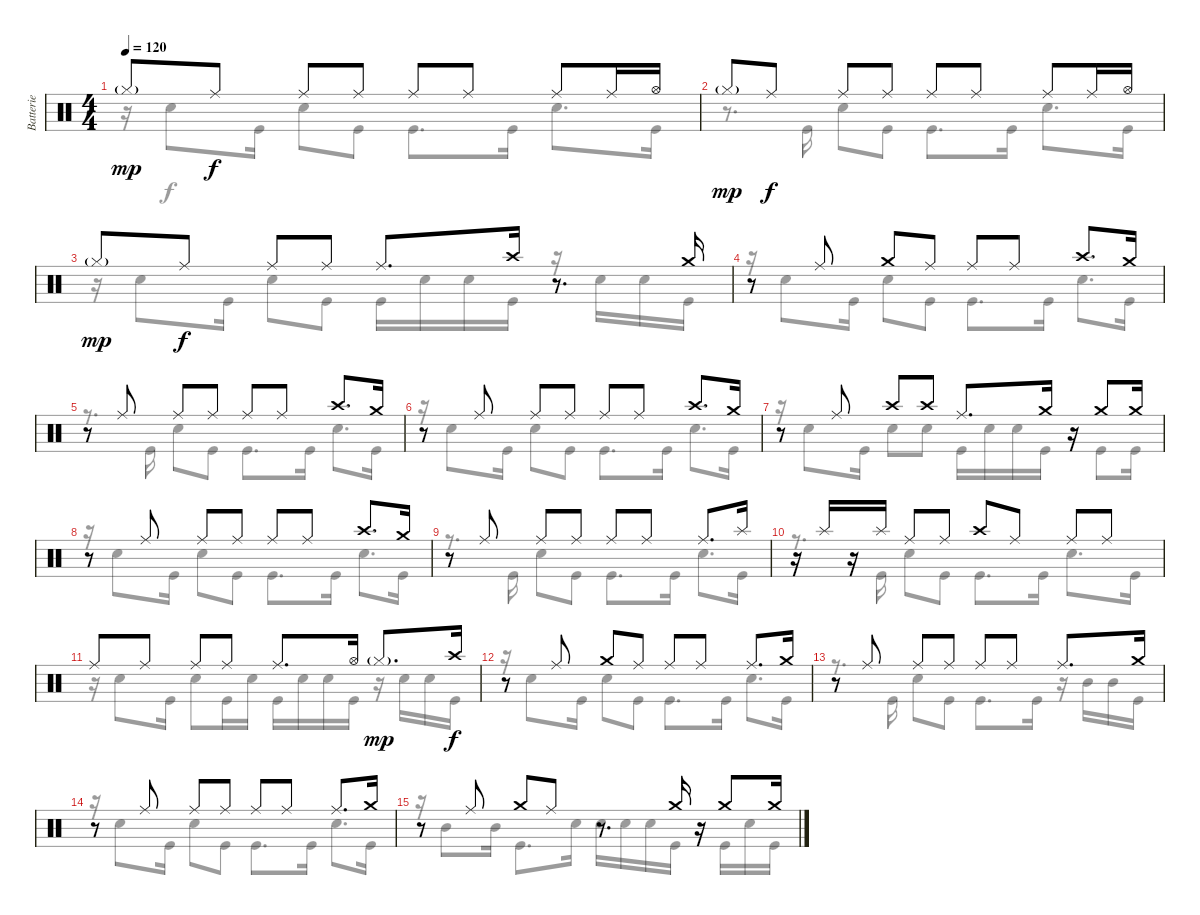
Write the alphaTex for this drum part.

\track ("Batterie" "Batterie") {instrument percussion}
\staff {score}
\articulation defaults
\voice
\ts (4 4)
\tempo 120
\clef neutral
\ks c "Hi-Hat (closed)"{g}.8{dy mp} "Ride (middle)".8{dy f} "Ride (middle)".8 "Ride (middle)".8 "Ride (middle)".8 "Ride (middle)".8 "Ride (middle)".8 "Ride (middle)".16 "Hi-Hat (open)".16
|
"Hi-Hat (closed)"{g}.8{dy mp} "Ride (middle)".8{dy f} "Ride (middle)".8 "Ride (middle)".8 "Ride (middle)".8 "Ride (middle)".8 "Ride (middle)".8 "Ride (middle)".16 "Hi-Hat (open)".16 |
"Hi-Hat (closed)"{g}.8{dy mp} "Ride (middle)".8{dy f} "Ride (middle)".8 "Ride (middle)".8 "Ride (middle)".8{d} "Crash high (hit)".16 r.8{d} "Crash medium (hit)".16 |
r.8 "Ride (middle)".8 "Crash medium (hit)".8 "Ride (middle)".8 "Ride (middle)".8 "Ride (middle)".8 "Crash high (hit)".8{d} "Crash medium (hit)".16 |
r.8 "Ride (middle)".8 "Ride (middle)".8 "Ride (middle)".8 "Ride (middle)".8 "Ride (middle)".8 "Crash high (hit)".8{d} "Crash medium (hit)".16 |
r.8 "Ride (middle)".8 "Ride (middle)".8 "Ride (middle)".8 "Ride (middle)".8 "Ride (middle)".8 "Crash high (hit)".8{d} "Crash medium (hit)".16 |
r.8 "Ride (middle)".8 "Crash high (hit)".8 "Crash high (hit)".8 "Ride (middle)".8{d} "Crash medium (hit)".16 r.16 "Crash medium (hit)".8 "Crash medium (hit)".16 |
r.8 "Ride (middle)".8 "Ride (middle)".8 "Ride (middle)".8 "Ride (middle)".8 "Ride (middle)".8 "Crash high (hit)".8{d} "Crash medium (hit)".16 |
r.8 "Ride (middle)".8 "Ride (middle)".8 "Ride (middle)".8 "Ride (middle)".8 "Ride (middle)".8 "Ride (middle)".8{d} "Splash (hit)".16 |
r.16 "Splash (hit)".16 r.16 "Splash (hit)".16 "Ride (middle)".8 "Ride (middle)".8 "Crash high (hit)".8 "Ride (middle)".8 "Ride (middle)".8 "Ride (middle)".8 |
"Ride (middle)".8 "Ride (middle)".8 "Ride (middle)".8 "Ride (middle)".8 "Ride (middle)".8{d} "Hi-Hat (open)".16 "Hi-Hat (closed)"{g}.8{d dy mp} "Crash high (hit)".16{dy f} |
r.8 "Ride (middle)".8 "Crash medium (hit)".8 "Ride (middle)".8 "Ride (middle)".8 "Ride (middle)".8 "Ride (middle)".8{d} "Crash medium (hit)".16 |
r.8 "Ride (middle)".8 "Ride (middle)".8 "Ride (middle)".8 "Ride (middle)".8 "Ride (middle)".8 "Ride (middle)".8{d} "Crash medium (hit)".16 |
r.8 "Ride (middle)".8 "Ride (middle)".8 "Ride (middle)".8 "Ride (middle)".8 "Ride (middle)".8 "Ride (middle)".8{d} "Crash medium (hit)".16 |
r.8 "Ride (middle)".8 "Crash medium (hit)".8 "Ride (middle)".8 r.8{d} "Crash medium (hit)".16 r.16 "Crash medium (hit)".8 "Crash medium (hit)".16
\voice
\clef neutral
\ottava regular
\simile none
\ks c
r.16{dy f} "Snare (hit) 2".8 "Kick (hit)".16 "Snare (hit) 2".8 "Kick (hit)".8 "Kick (hit)".8{d} "Kick (hit)".16 "Snare (hit) 2".8{d} "Kick (hit)".16 |
r.8{d} "Kick (hit)".16 "Snare (hit) 2".8 "Kick (hit)".8 "Kick (hit)".8{d} "Kick (hit)".16 "Snare (hit) 2".8{d} "Kick (hit)".16 |
r.16 "Snare (hit) 2".8 "Kick (hit)".16 "Snare (hit) 2".8 "Kick (hit)".8 "Kick (hit)".16 "Snare (hit) 2".16 "Snare (hit) 2".16 "Kick (hit)".16 r.16 "Snare (hit) 2".16 "Snare (hit) 2".16 "Kick (hit)".16 |
r.16 "Snare (hit) 2".8 "Kick (hit)".16 "Snare (hit) 2".8 "Kick (hit)".8 "Kick (hit)".8{d} "Kick (hit)".16 "Snare (hit) 2".8{d} "Kick (hit)".16 |
r.8{d} "Kick (hit)".16 "Snare (hit) 2".8 "Kick (hit)".8 "Kick (hit)".8{d} "Kick (hit)".16 "Snare (hit) 2".8{d} "Kick (hit)".16 |
r.16 "Snare (hit) 2".8 "Kick (hit)".16 "Snare (hit) 2".8 "Kick (hit)".8 "Kick (hit)".8{d} "Kick (hit)".16 "Snare (hit) 2".8{d} "Kick (hit)".16 |
r.16 "Snare (hit) 2".8 "Kick (hit)".16 "Snare (hit) 2".8 "Snare (hit) 2".8 "Kick (hit)".16 "Snare (hit) 2".16 "Snare (hit) 2".16 "Kick (hit)".16 r.16 "Kick (hit)".8 "Kick (hit)".16 |
r.16 "Snare (hit) 2".8 "Kick (hit)".16 "Snare (hit) 2".8 "Kick (hit)".8 "Kick (hit)".8{d} "Kick (hit)".16 "Snare (hit) 2".8{d} "Kick (hit)".16 |
r.8{d} "Kick (hit)".16 "Snare (hit) 2".8 "Kick (hit)".8 "Kick (hit)".8{d} "Kick (hit)".16 "Snare (hit) 2".8{d} "Kick (hit)".16 |
r.8{d} "Kick (hit)".16 "Snare (hit) 2".8 "Kick (hit)".8 "Kick (hit)".8{d} "Kick (hit)".16 "Snare (hit) 2".8{d} "Kick (hit)".16 |
r.16 "Snare (hit) 2".8 "Kick (hit)".16 "Snare (hit) 2".8 "Kick (hit)".16 "Snare (hit) 2".16 "Kick (hit)".16 "Snare (hit) 2".16 "Snare (hit) 2".16 "Kick (hit)".16 r.16 "Snare (hit) 2".16 "Snare (hit) 2".16 "Kick (hit)".16 |
r.16 "Snare (hit) 2".8 "Kick (hit)".16 "Snare (hit) 2".8 "Kick (hit)".8 "Kick (hit)".8{d} "Kick (hit)".16 "Snare (hit) 2".8{d} "Kick (hit)".16 |
r.8{d} "Kick (hit)".16 "Snare (hit) 2".8 "Kick (hit)".8 "Kick (hit)".8{d} "Kick (hit)".16 r.16 "Mid Tom (hit)".16 "Mid Tom (hit)".16 "Kick (hit)".16 |
r.16 "Snare (hit) 2".8 "Kick (hit)".16 "Snare (hit) 2".8 "Kick (hit)".8 "Kick (hit)".8{d} "Kick (hit)".16 "Snare (hit) 2".8{d} "Kick (hit)".16 |
r.16 "Mid Tom (hit)".8 "Mid Tom (hit)".16 "Kick (hit)".8{d} "Snare (hit) 2".16 "Snare (hit) 2".16 "Snare (hit) 2".16 "Snare (hit) 2".16 "Kick (hit)".16 r.16 "Kick (hit)".16 "Snare (hit) 2".16 "Kick (hit)".16
